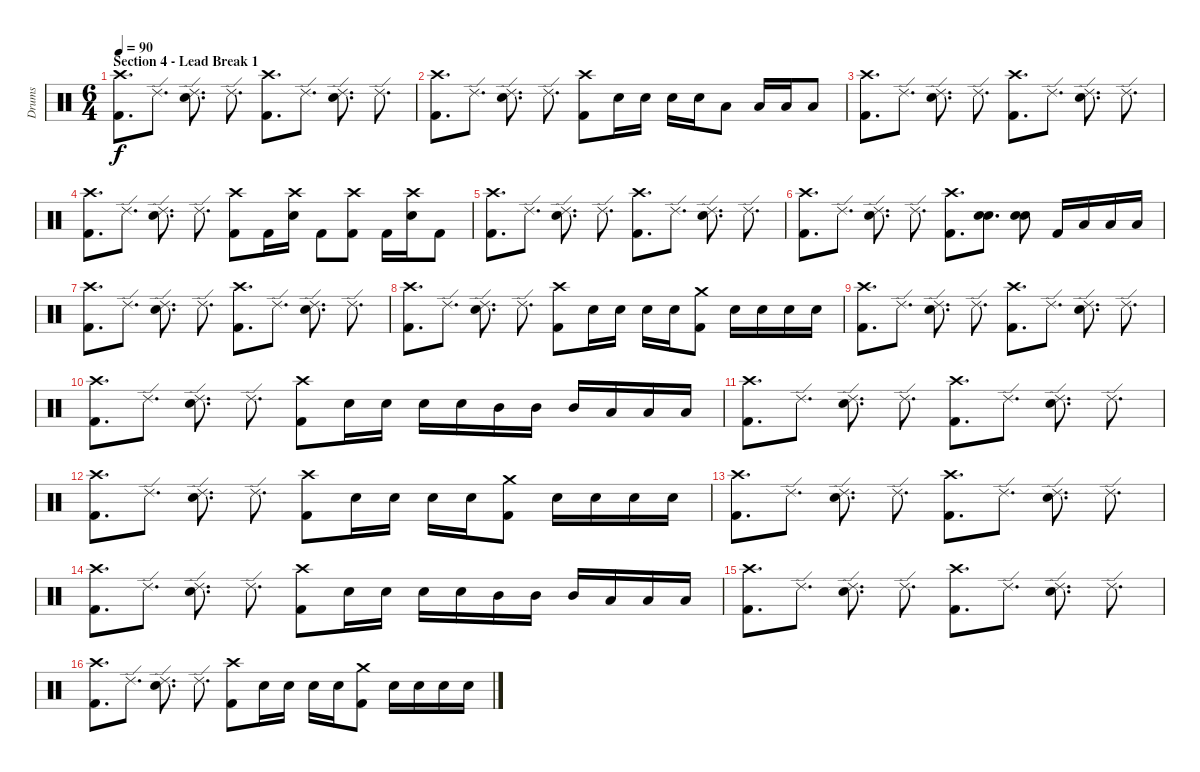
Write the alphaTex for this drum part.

\track ("Drums" "Drums") {instrument percussion}
\staff {score}
\articulation defaults
\ts (6 4)
\section ("" "Section 4 - Lead Break 1")
\tempo 90
\clef neutral
\ks c
("Crash high (hit)" "Kick (hit) 2").8{d dy f} "Ride (edge) 2".8{d} ("Ride (edge) 2" "Electric Snare (hit)").8{d} "Ride (edge) 2".8{d} ("Crash high (hit)" "Kick (hit) 2").8{d} "Ride (edge) 2".8{d} ("Ride (edge) 2" "Electric Snare (hit)").8{d} "Ride (edge) 2".8{d} |
("Crash high (hit)" "Kick (hit) 2").8{d} "Ride (edge) 2".8{d} ("Ride (edge) 2" "Electric Snare (hit)").8{d} "Ride (edge) 2".8{d} ("Crash high (hit)" "Kick (hit) 2").8 "Electric Snare (hit)".16 "Electric Snare (hit)".16 "Electric Snare (hit)".16 "Electric Snare (hit)".16 "Low Tom (hit)".8 "Low Tom (hit)".16 "Low Tom (hit)".16 "Low Tom (hit)".8 |
("Crash high (hit)" "Kick (hit) 2").8{d} "Ride (edge) 2".8{d} ("Ride (edge) 2" "Electric Snare (hit)").8{d} "Ride (edge) 2".8{d} ("Crash high (hit)" "Kick (hit) 2").8{d} "Ride (edge) 2".8{d} ("Ride (edge) 2" "Electric Snare (hit)").8{d} "Ride (edge) 2".8{d} |
("Crash high (hit)" "Kick (hit) 2").8{d} "Ride (edge) 2".8{d} ("Ride (edge) 2" "Electric Snare (hit)").8{d} "Ride (edge) 2".8{d} ("Crash high (hit)" "Kick (hit) 2").8 "Kick (hit) 2".16 ("Crash high (hit)" "Electric Snare (hit)").16 "Kick (hit) 2".8 ("Crash high (hit)" "Kick (hit) 2").8 "Kick (hit) 2".16 ("Crash high (hit)" "Electric Snare (hit)").16 "Kick (hit) 2".8 |
("Crash high (hit)" "Kick (hit) 2").8{d} "Ride (edge) 2".8{d} ("Ride (edge) 2" "Electric Snare (hit)").8{d} "Ride (edge) 2".8{d} ("Crash high (hit)" "Kick (hit) 2").8{d} "Ride (edge) 2".8{d} ("Ride (edge) 2" "Electric Snare (hit)").8{d} "Ride (edge) 2".8{d} |
("Crash high (hit)" "Kick (hit) 2").8{d} "Ride (edge) 2".8{d} ("Ride (edge) 2" "Electric Snare (hit)").8{d} "Ride (edge) 2".8{d} ("Crash high (hit)" "Kick (hit) 2").8{d} ("Electric Snare (hit)" "Electric Snare (hit)").8{d bu 60} ("Electric Snare (hit)" "Electric Snare (hit)").8{bu 60} "Kick (hit) 2".16 "Low Tom (hit)".16 "Low Tom (hit)".16 "Low Tom (hit)".16 |
("Crash high (hit)" "Kick (hit) 2").8{d} "Ride (edge) 2".8{d} ("Ride (edge) 2" "Electric Snare (hit)").8{d} "Ride (edge) 2".8{d} ("Crash high (hit)" "Kick (hit) 2").8{d} "Ride (edge) 2".8{d} ("Ride (edge) 2" "Electric Snare (hit)").8{d} "Ride (edge) 2".8{d} |
("Crash high (hit)" "Kick (hit) 2").8{d} "Ride (edge) 2".8{d} ("Ride (edge) 2" "Electric Snare (hit)").8{d} "Ride (edge) 2".8{d} ("Crash high (hit)" "Kick (hit) 2").8 "Electric Snare (hit)".16 "Electric Snare (hit)".16 "Electric Snare (hit)".16 "Electric Snare (hit)".16 ("Crash medium (hit)" "Kick (hit) 2").8 "Electric Snare (hit)".16 "Electric Snare (hit)".16 "Electric Snare (hit)".16 "Electric Snare (hit)".16 |
("Crash high (hit)" "Kick (hit) 2").8{d} "Ride (edge) 2".8{d} ("Ride (edge) 2" "Electric Snare (hit)").8{d} "Ride (edge) 2".8{d} ("Crash high (hit)" "Kick (hit) 2").8{d} "Ride (edge) 2".8{d} ("Ride (edge) 2" "Electric Snare (hit)").8{d} "Ride (edge) 2".8{d} |
("Crash high (hit)" "Kick (hit) 2").8{d} "Ride (edge) 2".8{d} ("Ride (edge) 2" "Electric Snare (hit)").8{d} "Ride (edge) 2".8{d} ("Crash high (hit)" "Kick (hit) 2").8 "Electric Snare (hit)".16 "Electric Snare (hit)".16 "Electric Snare (hit)".16 "Electric Snare (hit)".16 "Mid Tom (hit)".16 "Mid Tom (hit)".16 "Mid Tom (hit)".16 "Low Tom (hit)".16 "Low Tom (hit)".16 "Low Tom (hit)".16 |
("Crash high (hit)" "Kick (hit) 2").8{d} "Ride (edge) 2".8{d} ("Ride (edge) 2" "Electric Snare (hit)").8{d} "Ride (edge) 2".8{d} ("Crash high (hit)" "Kick (hit) 2").8{d} "Ride (edge) 2".8{d} ("Ride (edge) 2" "Electric Snare (hit)").8{d} "Ride (edge) 2".8{d} |
("Crash high (hit)" "Kick (hit) 2").8{d} "Ride (edge) 2".8{d} ("Ride (edge) 2" "Electric Snare (hit)").8{d} "Ride (edge) 2".8{d} ("Crash high (hit)" "Kick (hit) 2").8 "Electric Snare (hit)".16 "Electric Snare (hit)".16 "Electric Snare (hit)".16 "Electric Snare (hit)".16 ("Crash medium (hit)" "Kick (hit) 2").8 "Electric Snare (hit)".16 "Electric Snare (hit)".16 "Electric Snare (hit)".16 "Electric Snare (hit)".16 |
("Crash high (hit)" "Kick (hit) 2").8{d} "Ride (edge) 2".8{d} ("Ride (edge) 2" "Electric Snare (hit)").8{d} "Ride (edge) 2".8{d} ("Crash high (hit)" "Kick (hit) 2").8{d} "Ride (edge) 2".8{d} ("Ride (edge) 2" "Electric Snare (hit)").8{d} "Ride (edge) 2".8{d} |
("Crash high (hit)" "Kick (hit) 2").8{d} "Ride (edge) 2".8{d} ("Ride (edge) 2" "Electric Snare (hit)").8{d} "Ride (edge) 2".8{d} ("Crash high (hit)" "Kick (hit) 2").8 "Electric Snare (hit)".16 "Electric Snare (hit)".16 "Electric Snare (hit)".16 "Electric Snare (hit)".16 "Mid Tom (hit)".16 "Mid Tom (hit)".16 "Mid Tom (hit)".16 "Low Tom (hit)".16 "Low Tom (hit)".16 "Low Tom (hit)".16 |
("Crash high (hit)" "Kick (hit) 2").8{d} "Ride (edge) 2".8{d} ("Ride (edge) 2" "Electric Snare (hit)").8{d} "Ride (edge) 2".8{d} ("Crash high (hit)" "Kick (hit) 2").8{d} "Ride (edge) 2".8{d} ("Ride (edge) 2" "Electric Snare (hit)").8{d} "Ride (edge) 2".8{d} |
("Crash high (hit)" "Kick (hit) 2").8{d} "Ride (edge) 2".8{d} ("Ride (edge) 2" "Electric Snare (hit)").8{d} "Ride (edge) 2".8{d} ("Crash high (hit)" "Kick (hit) 2").8 "Electric Snare (hit)".16 "Electric Snare (hit)".16 "Electric Snare (hit)".16 "Electric Snare (hit)".16 ("Crash medium (hit)" "Kick (hit) 2").8 "Electric Snare (hit)".16 "Electric Snare (hit)".16 "Electric Snare (hit)".16 "Electric Snare (hit)".16
